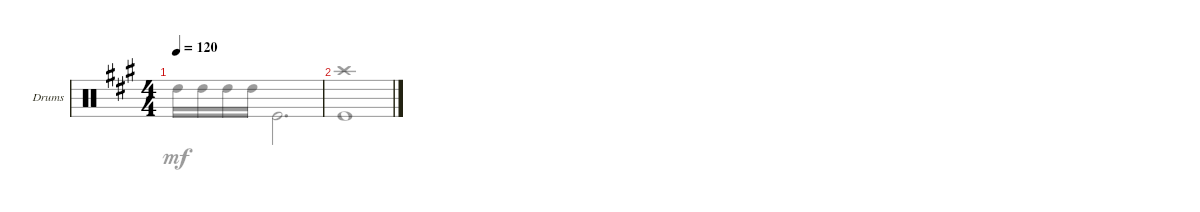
\defaultSystemsLayout 4
\bracketExtendMode groupsimilarinstruments
\firstSystemTrackNameOrientation horizontal
\otherSystemsTrackNameOrientation horizontal
\track ("PETER CRISS" "Drums") {mute instrument percussion}
\staff {score}
\articulation defaults
\voice
\ts (4 4)
\tempo 120
\clef neutral
\ks a
|
\voice
\clef neutral
\ks a "High Tom (hit)".16{dy mf} "High Tom (hit)".16 "High Tom (hit)".16 "High Tom (hit)".16 "Kick (hit)".2{d}
|
("Kick (hit)" "Crash high (hit)").1
